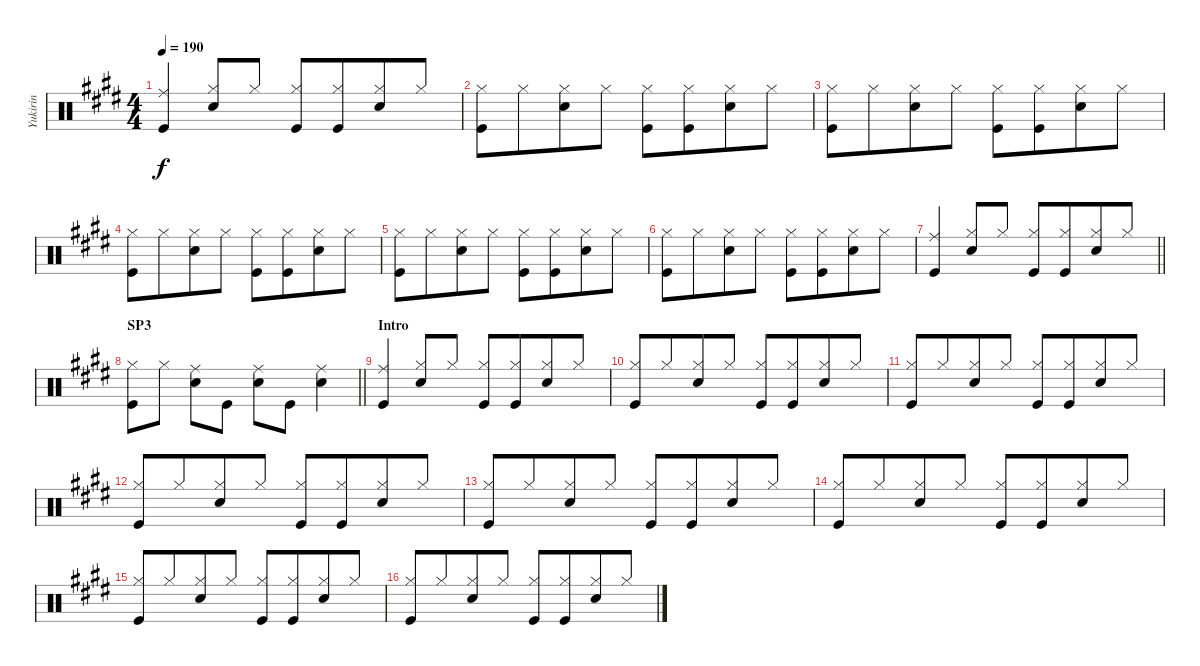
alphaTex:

\track ("Yukirin" "Yukirin") {mute instrument percussion}
\staff {score}
\articulation defaults
\ts (4 4)
\tempo 190
\clef neutral
\ks e
("Ride (middle)" "Kick (hit)").4{dy f beam Up} ("Hi-Hat (closed)" "Snare (hit) 2").8{beam Up} "Hi-Hat (closed)".8{beam Up} ("Hi-Hat (closed)" "Kick (hit)").8{beam Up} ("Hi-Hat (closed)" "Kick (hit)").8{beam Up beam merge} ("Hi-Hat (closed)" "Snare (hit) 2").8{beam Up} "Hi-Hat (closed)".8{beam Up} |
("Hi-Hat (closed)" "Kick (hit)").8 "Hi-Hat (closed)".8{beam merge} ("Hi-Hat (closed)" "Snare (hit) 2").8 "Hi-Hat (closed)".8 ("Hi-Hat (closed)" "Kick (hit)").8 ("Hi-Hat (closed)" "Kick (hit)").8{beam merge} ("Hi-Hat (closed)" "Snare (hit) 2").8 "Hi-Hat (closed)".8 |
("Hi-Hat (closed)" "Kick (hit)").8 "Hi-Hat (closed)".8{beam merge} ("Hi-Hat (closed)" "Snare (hit) 2").8 "Hi-Hat (closed)".8 ("Hi-Hat (closed)" "Kick (hit)").8 ("Hi-Hat (closed)" "Kick (hit)").8{beam merge} ("Hi-Hat (closed)" "Snare (hit) 2").8 "Hi-Hat (closed)".8 |
("Hi-Hat (closed)" "Kick (hit)").8 "Hi-Hat (closed)".8{beam merge} ("Hi-Hat (closed)" "Snare (hit) 2").8 "Hi-Hat (closed)".8 ("Hi-Hat (closed)" "Kick (hit)").8 ("Hi-Hat (closed)" "Kick (hit)").8{beam merge} ("Hi-Hat (closed)" "Snare (hit) 2").8 "Hi-Hat (closed)".8 |
("Hi-Hat (closed)" "Kick (hit)").8 "Hi-Hat (closed)".8{beam merge} ("Hi-Hat (closed)" "Snare (hit) 2").8 "Hi-Hat (closed)".8 ("Hi-Hat (closed)" "Kick (hit)").8 ("Hi-Hat (closed)" "Kick (hit)").8{beam merge} ("Hi-Hat (closed)" "Snare (hit) 2").8 "Hi-Hat (closed)".8 |
("Hi-Hat (closed)" "Kick (hit)").8 "Hi-Hat (closed)".8{beam merge} ("Hi-Hat (closed)" "Snare (hit) 2").8 "Hi-Hat (closed)".8 ("Hi-Hat (closed)" "Kick (hit)").8 ("Hi-Hat (closed)" "Kick (hit)").8{beam merge} ("Hi-Hat (closed)" "Snare (hit) 2").8 "Hi-Hat (closed)".8 |
\barLineRight lightlight
("Ride (middle)" "Kick (hit)").4{beam Up} ("Hi-Hat (closed)" "Snare (hit) 2").8{beam Up} "Hi-Hat (closed)".8{beam Up} ("Hi-Hat (closed)" "Kick (hit)").8{beam Up} ("Hi-Hat (closed)" "Kick (hit)").8{beam Up beam merge} ("Hi-Hat (closed)" "Snare (hit) 2").8{beam Up} "Hi-Hat (closed)".8{beam Up} |
\section ("" "SP3")
\barLineRight lightlight
("Hi-Hat (closed)" "Kick (hit)").8 "Hi-Hat (closed)".8 ("Ride (middle)" "Snare (hit) 2").8 "Kick (hit)".8 ("Ride (middle)" "Snare (hit) 2").8 "Kick (hit)".8 ("Ride (middle)" "Snare (hit) 2").4 |
\section ("" "Intro")
("Ride (middle)" "Kick (hit)").4{beam Up} ("Hi-Hat (closed)" "Snare (hit) 2").8{beam Up} "Hi-Hat (closed)".8{beam Up} ("Hi-Hat (closed)" "Kick (hit)").8{beam Up} ("Hi-Hat (closed)" "Kick (hit)").8{beam Up beam merge} ("Hi-Hat (closed)" "Snare (hit) 2").8{beam Up} "Hi-Hat (closed)".8{beam Up} |
("Hi-Hat (closed)" "Kick (hit)").8{beam Up} "Hi-Hat (closed)".8{beam Up beam merge} ("Hi-Hat (closed)" "Snare (hit) 2").8{beam Up} "Hi-Hat (closed)".8{beam Up} ("Hi-Hat (closed)" "Kick (hit)").8{beam Up} ("Hi-Hat (closed)" "Kick (hit)").8{beam Up beam merge} ("Hi-Hat (closed)" "Snare (hit) 2").8{beam Up} "Hi-Hat (closed)".8{beam Up} |
("Hi-Hat (closed)" "Kick (hit)").8{beam Up} "Hi-Hat (closed)".8{beam Up beam merge} ("Hi-Hat (closed)" "Snare (hit) 2").8{beam Up} "Hi-Hat (closed)".8{beam Up} ("Hi-Hat (closed)" "Kick (hit)").8{beam Up} ("Hi-Hat (closed)" "Kick (hit)").8{beam Up beam merge} ("Hi-Hat (closed)" "Snare (hit) 2").8{beam Up} "Hi-Hat (closed)".8{beam Up} |
("Hi-Hat (closed)" "Kick (hit)").8{beam Up} "Hi-Hat (closed)".8{beam Up beam merge} ("Hi-Hat (closed)" "Snare (hit) 2").8{beam Up} "Hi-Hat (closed)".8{beam Up} ("Hi-Hat (closed)" "Kick (hit)").8{beam Up} ("Hi-Hat (closed)" "Kick (hit)").8{beam Up beam merge} ("Hi-Hat (closed)" "Snare (hit) 2").8{beam Up} "Hi-Hat (closed)".8{beam Up} |
("Hi-Hat (closed)" "Kick (hit)").8{beam Up} "Hi-Hat (closed)".8{beam Up beam merge} ("Hi-Hat (closed)" "Snare (hit) 2").8{beam Up} "Hi-Hat (closed)".8{beam Up} ("Hi-Hat (closed)" "Kick (hit)").8{beam Up} ("Hi-Hat (closed)" "Kick (hit)").8{beam Up beam merge} ("Hi-Hat (closed)" "Snare (hit) 2").8{beam Up} "Hi-Hat (closed)".8{beam Up} |
("Hi-Hat (closed)" "Kick (hit)").8{beam Up} "Hi-Hat (closed)".8{beam Up beam merge} ("Hi-Hat (closed)" "Snare (hit) 2").8{beam Up} "Hi-Hat (closed)".8{beam Up} ("Hi-Hat (closed)" "Kick (hit)").8{beam Up} ("Hi-Hat (closed)" "Kick (hit)").8{beam Up beam merge} ("Hi-Hat (closed)" "Snare (hit) 2").8{beam Up} "Hi-Hat (closed)".8{beam Up} |
("Hi-Hat (closed)" "Kick (hit)").8{beam Up} "Hi-Hat (closed)".8{beam Up beam merge} ("Hi-Hat (closed)" "Snare (hit) 2").8{beam Up} "Hi-Hat (closed)".8{beam Up} ("Hi-Hat (closed)" "Kick (hit)").8{beam Up} ("Hi-Hat (closed)" "Kick (hit)").8{beam Up beam merge} ("Hi-Hat (closed)" "Snare (hit) 2").8{beam Up} "Hi-Hat (closed)".8{beam Up} |
("Hi-Hat (closed)" "Kick (hit)").8{beam Up} "Hi-Hat (closed)".8{beam Up beam merge} ("Hi-Hat (closed)" "Snare (hit) 2").8{beam Up} "Hi-Hat (closed)".8{beam Up} ("Hi-Hat (closed)" "Kick (hit)").8{beam Up} ("Hi-Hat (closed)" "Kick (hit)").8{beam Up beam merge} ("Hi-Hat (closed)" "Snare (hit) 2").8{beam Up} "Hi-Hat (closed)".8{beam Up}
